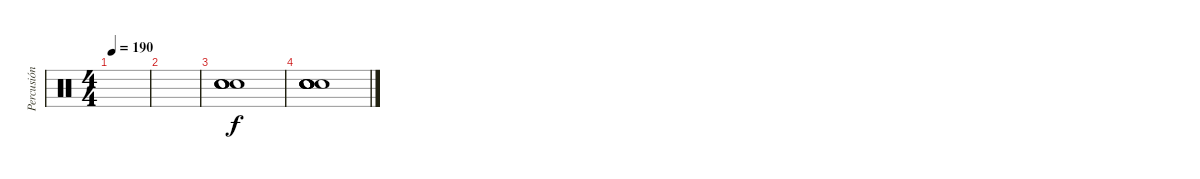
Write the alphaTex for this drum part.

\track ("Percusión" "Percusión") {instrument percussion}
\staff {score}
\articulation defaults
\ts (4 4)
\tempo 190
\clef neutral
\ks c
|
|
("Snare (hit)" "Snare (hit)" "Snare (hit)" "Snare (hit)").1 |
("Snare (hit)"{x} "Snare (hit)"{x} "Snare (hit)"{x} "Snare (hit)"{x} "Snare (hit)"{x} "Snare (hit)"{x}).1
